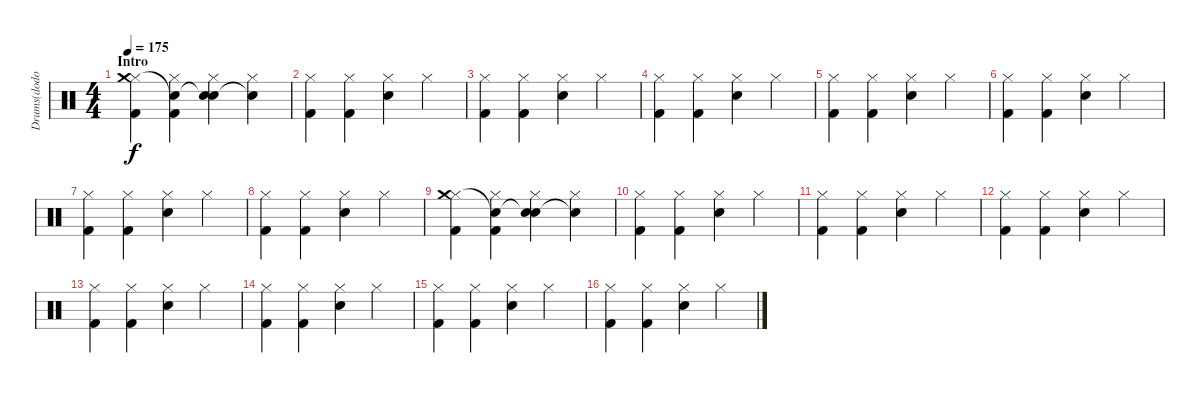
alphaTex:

\track ("Drums(dodo)" "Drums(dodo") {instrument percussion}
\staff {score}
\articulation defaults
\ts (4 4)
\section ("" "Intro")
\tempo 175
\clef neutral
\ks c
("Hi-Hat (closed)" "Crash medium (hit)" "Kick (hit) 2").4{dy f} ("Hi-Hat (closed)" "Snare (hit) 2"{t} "Kick (hit) 2").4 ("Hi-Hat (closed)" "Snare (hit)"{t} "Snare (hit) 2").4 ("Hi-Hat (closed)" "Snare (hit)"{t}).4 |
("Hi-Hat (closed)" "Kick (hit) 2").4 ("Hi-Hat (closed)" "Kick (hit) 2").4 ("Hi-Hat (closed)" "Snare (hit) 2").4 "Hi-Hat (closed)".4 |
("Hi-Hat (closed)" "Kick (hit) 2").4 ("Hi-Hat (closed)" "Kick (hit) 2").4 ("Hi-Hat (closed)" "Snare (hit) 2").4 "Hi-Hat (closed)".4 |
("Hi-Hat (closed)" "Kick (hit) 2").4 ("Hi-Hat (closed)" "Kick (hit) 2").4 ("Hi-Hat (closed)" "Snare (hit) 2").4 "Hi-Hat (closed)".4 |
("Hi-Hat (closed)" "Kick (hit) 2").4 ("Hi-Hat (closed)" "Kick (hit) 2").4 ("Hi-Hat (closed)" "Snare (hit) 2").4 "Hi-Hat (closed)".4 |
("Hi-Hat (closed)" "Kick (hit) 2").4 ("Hi-Hat (closed)" "Kick (hit) 2").4 ("Hi-Hat (closed)" "Snare (hit) 2").4 "Hi-Hat (closed)".4 |
("Hi-Hat (closed)" "Kick (hit) 2").4 ("Hi-Hat (closed)" "Kick (hit) 2").4 ("Hi-Hat (closed)" "Snare (hit) 2").4 "Hi-Hat (closed)".4 |
("Hi-Hat (closed)" "Kick (hit) 2").4 ("Hi-Hat (closed)" "Kick (hit) 2").4 ("Hi-Hat (closed)" "Snare (hit) 2").4 "Hi-Hat (closed)".4 |
("Hi-Hat (closed)" "Crash medium (hit)" "Kick (hit) 2").4 ("Hi-Hat (closed)" "Snare (hit) 2"{t} "Kick (hit) 2").4 ("Hi-Hat (closed)" "Snare (hit)"{t} "Snare (hit) 2").4 ("Hi-Hat (closed)" "Snare (hit)"{t}).4 |
("Hi-Hat (closed)" "Kick (hit) 2").4 ("Hi-Hat (closed)" "Kick (hit) 2").4 ("Hi-Hat (closed)" "Snare (hit) 2").4 "Hi-Hat (closed)".4 |
("Hi-Hat (closed)" "Kick (hit) 2").4 ("Hi-Hat (closed)" "Kick (hit) 2").4 ("Hi-Hat (closed)" "Snare (hit) 2").4 "Hi-Hat (closed)".4 |
("Hi-Hat (closed)" "Kick (hit) 2").4 ("Hi-Hat (closed)" "Kick (hit) 2").4 ("Hi-Hat (closed)" "Snare (hit) 2").4 "Hi-Hat (closed)".4 |
("Hi-Hat (closed)" "Kick (hit) 2").4 ("Hi-Hat (closed)" "Kick (hit) 2").4 ("Hi-Hat (closed)" "Snare (hit) 2").4 "Hi-Hat (closed)".4 |
("Hi-Hat (closed)" "Kick (hit) 2").4 ("Hi-Hat (closed)" "Kick (hit) 2").4 ("Hi-Hat (closed)" "Snare (hit) 2").4 "Hi-Hat (closed)".4 |
("Hi-Hat (closed)" "Kick (hit) 2").4 ("Hi-Hat (closed)" "Kick (hit) 2").4 ("Hi-Hat (closed)" "Snare (hit) 2").4 "Hi-Hat (closed)".4 |
("Hi-Hat (closed)" "Kick (hit) 2").4 ("Hi-Hat (closed)" "Kick (hit) 2").4 ("Hi-Hat (closed)" "Snare (hit) 2").4 "Hi-Hat (closed)".4
